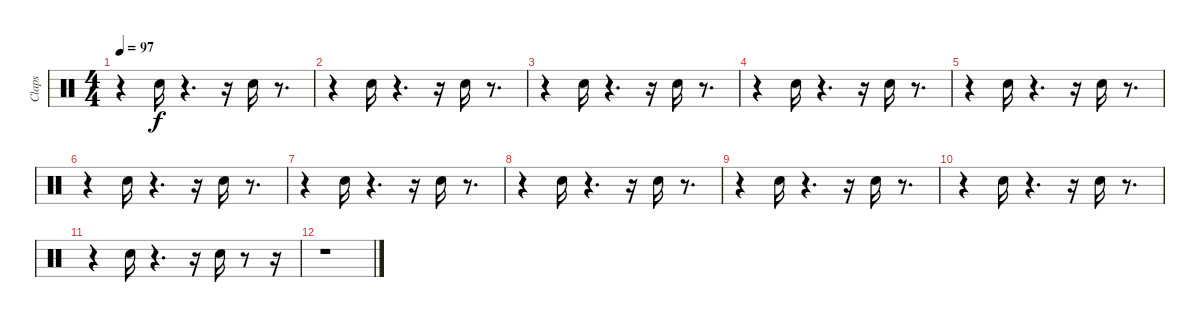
\track ("Claps" "Claps") {instrument percussion}
\staff {score}
\articulation defaults
\ts (4 4)
\tempo 97
\clef neutral
\ks c
r.4{dy f} "Hand Clap (hit)".16 r.4{d} r.16 "Hand Clap (hit)".16 r.8{d} |
r.4 "Hand Clap (hit)".16 r.4{d} r.16 "Hand Clap (hit)".16 r.8{d} |
r.4 "Hand Clap (hit)".16 r.4{d} r.16 "Hand Clap (hit)".16 r.8{d} |
r.4 "Hand Clap (hit)".16 r.4{d} r.16 "Hand Clap (hit)".16 r.8{d} |
r.4 "Hand Clap (hit)".16 r.4{d} r.16 "Hand Clap (hit)".16 r.8{d} |
r.4 "Hand Clap (hit)".16 r.4{d} r.16 "Hand Clap (hit)".16 r.8{d} |
r.4 "Hand Clap (hit)".16 r.4{d} r.16 "Hand Clap (hit)".16 r.8{d} |
r.4 "Hand Clap (hit)".16 r.4{d} r.16 "Hand Clap (hit)".16 r.8{d} |
r.4 "Hand Clap (hit)".16 r.4{d} r.16 "Hand Clap (hit)".16 r.8{d} |
r.4 "Hand Clap (hit)".16 r.4{d} r.16 "Hand Clap (hit)".16 r.8{d} |
r.4 "Hand Clap (hit)".16 r.4{d} r.16 "Hand Clap (hit)".16 r.8 r.16 |
r.1
